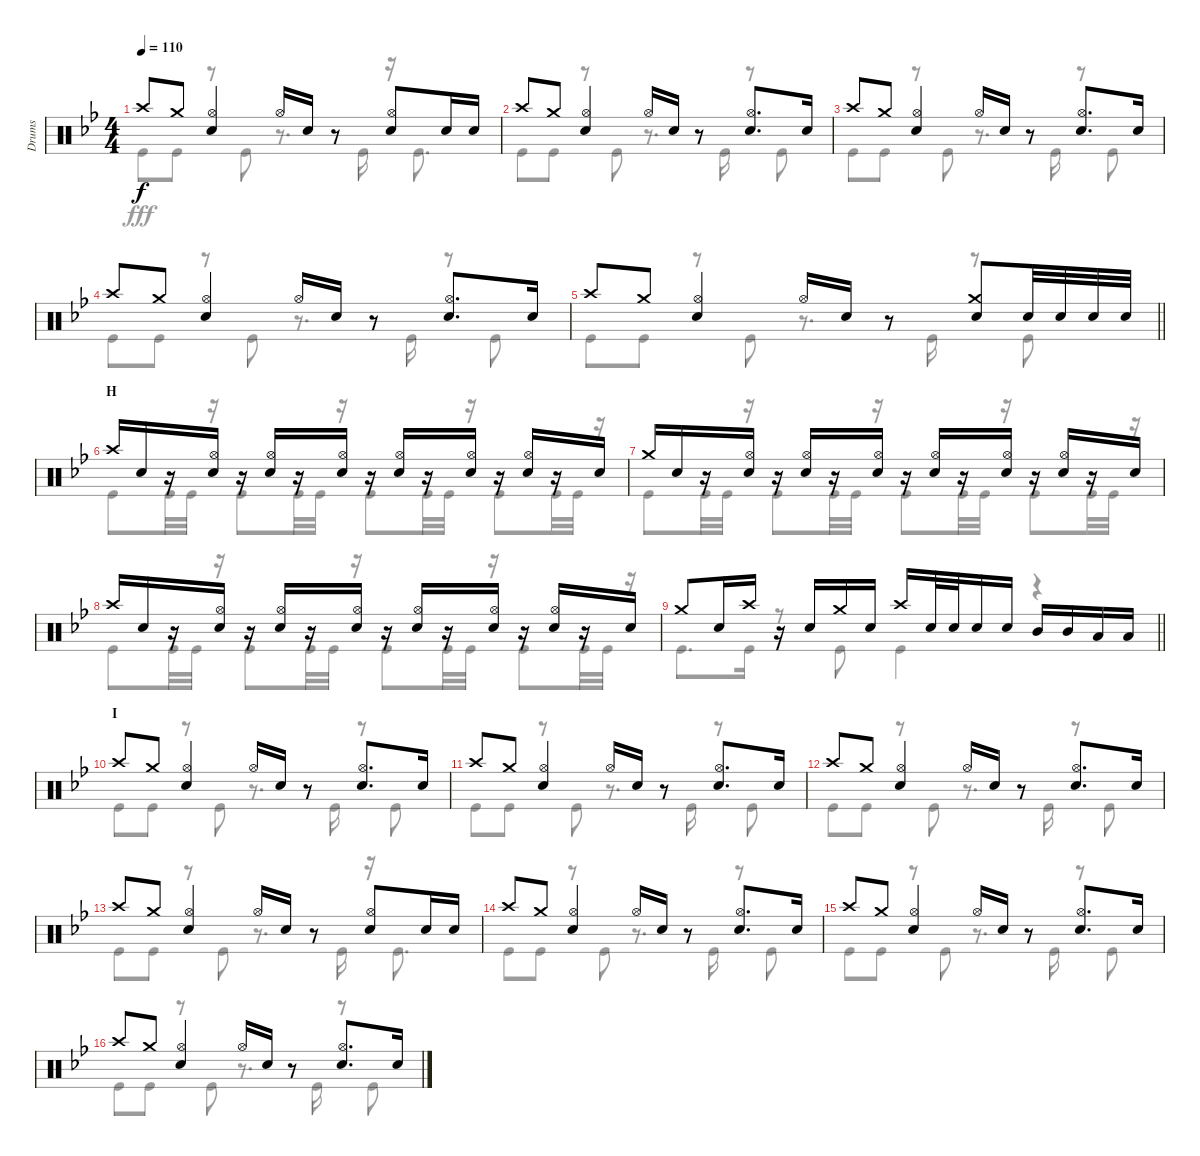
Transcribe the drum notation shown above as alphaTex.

\track ("Drums" "Drums") {instrument percussion}
\staff {score}
\articulation defaults
\voice
\ts (4 4)
\tempo 110
\clef neutral
\ks bb "Crash high (hit)".8{dy f} "Crash medium (hit)".8
("Hi-Hat (open)" "Snare (hit) 2").4 "Hi-Hat (open)".16 "Snare (hit) 2".16 r.8 ("Hi-Hat (open)" "Snare (hit) 2").8 "Snare (hit) 2".16 "Snare (hit) 2".16 |
"Crash high (hit)".8 "Crash medium (hit)".8 ("Hi-Hat (open)" "Snare (hit) 2").4 "Hi-Hat (open)".16 "Snare (hit) 2".16 r.8 ("Hi-Hat (open)" "Snare (hit) 2").8{d} "Snare (hit) 2".16 |
"Crash high (hit)".8 "Crash medium (hit)".8 ("Hi-Hat (open)" "Snare (hit) 2").4 "Hi-Hat (open)".16 "Snare (hit) 2".16 r.8 ("Hi-Hat (open)" "Snare (hit) 2").8{d} "Snare (hit) 2".16 |
"Crash high (hit)".8 "Crash medium (hit)".8 ("Hi-Hat (open)" "Snare (hit) 2").4 "Hi-Hat (open)".16 "Snare (hit) 2".16 r.8 ("Hi-Hat (open)" "Snare (hit) 2").8{d} "Snare (hit) 2".16 |
\barLineRight lightlight "Crash high (hit)".8 "Crash medium (hit)".8
("Hi-Hat (open)" "Snare (hit) 2").4 "Hi-Hat (open)".16 "Snare (hit) 2".16 r.8 ("Crash medium (hit)" "Snare (hit) 2").8 "Snare (hit) 2".32 "Snare (hit) 2".32 "Snare (hit) 2".32 "Snare (hit) 2".32 |
\section ("" "H")
"Crash high (hit)".16 "Snare (hit) 2".16 r.16 ("Hi-Hat (open)" "Snare (hit) 2").16 r.16 ("Hi-Hat (open)" "Snare (hit) 2").16 r.16 ("Hi-Hat (open)" "Snare (hit) 2").16 r.16 ("Hi-Hat (open)" "Snare (hit) 2").16 r.16 ("Hi-Hat (open)" "Snare (hit) 2").16 r.16 ("Hi-Hat (open)" "Snare (hit) 2").16 r.16 "Snare (hit) 2".16 |
"Crash medium (hit)".16 "Snare (hit) 2".16 r.16 ("Hi-Hat (open)" "Snare (hit) 2").16 r.16 ("Hi-Hat (open)" "Snare (hit) 2").16 r.16 ("Hi-Hat (open)" "Snare (hit) 2").16 r.16 ("Hi-Hat (open)" "Snare (hit) 2").16 r.16 ("Hi-Hat (open)" "Snare (hit) 2").16 r.16 ("Hi-Hat (open)" "Snare (hit) 2").16 r.16 "Snare (hit) 2".16 |
"Crash high (hit)".16 "Snare (hit) 2".16 r.16 ("Hi-Hat (open)" "Snare (hit) 2").16 r.16 ("Hi-Hat (open)" "Snare (hit) 2").16 r.16 ("Hi-Hat (open)" "Snare (hit) 2").16 r.16 ("Hi-Hat (open)" "Snare (hit) 2").16 r.16 ("Hi-Hat (open)" "Snare (hit) 2").16 r.16 ("Hi-Hat (open)" "Snare (hit) 2").16 r.16 "Snare (hit) 2".16 |
\barLineRight lightlight "Crash medium (hit)".8 "Snare (hit) 2".16 "Crash high (hit)".16
r.16 "Snare (hit) 2".16 "Crash medium (hit)".16 "Snare (hit) 2".16 "Crash high (hit)".16 "Snare (hit) 2".32 "Snare (hit) 2".32 "Snare (hit) 2".16 "Snare (hit) 2".16 "Mid Tom (hit)".16 "Mid Tom (hit)".16 "Low Tom (hit)".16 "Low Tom (hit)".16 |
\section ("" "I")
"Crash high (hit)".8 "Crash medium (hit)".8 ("Hi-Hat (open)" "Snare (hit) 2").4 "Hi-Hat (open)".16 "Snare (hit) 2".16 r.8 ("Hi-Hat (open)" "Snare (hit) 2").8{d} "Snare (hit) 2".16 |
"Crash high (hit)".8 "Crash medium (hit)".8 ("Hi-Hat (open)" "Snare (hit) 2").4 "Hi-Hat (open)".16 "Snare (hit) 2".16 r.8 ("Hi-Hat (open)" "Snare (hit) 2").8{d} "Snare (hit) 2".16 |
"Crash high (hit)".8 "Crash medium (hit)".8 ("Hi-Hat (open)" "Snare (hit) 2").4 "Hi-Hat (open)".16 "Snare (hit) 2".16 r.8 ("Hi-Hat (open)" "Snare (hit) 2").8{d} "Snare (hit) 2".16 |
"Crash high (hit)".8 "Crash medium (hit)".8 ("Hi-Hat (open)" "Snare (hit) 2").4 "Hi-Hat (open)".16 "Snare (hit) 2".16 r.8 ("Hi-Hat (open)" "Snare (hit) 2").8 "Snare (hit) 2".16 "Snare (hit) 2".16 |
"Crash high (hit)".8 "Crash medium (hit)".8 ("Hi-Hat (open)" "Snare (hit) 2").4 "Hi-Hat (open)".16 "Snare (hit) 2".16 r.8 ("Hi-Hat (open)" "Snare (hit) 2").8{d} "Snare (hit) 2".16 |
"Crash high (hit)".8 "Crash medium (hit)".8 ("Hi-Hat (open)" "Snare (hit) 2").4 "Hi-Hat (open)".16 "Snare (hit) 2".16 r.8 ("Hi-Hat (open)" "Snare (hit) 2").8{d} "Snare (hit) 2".16 |
"Crash high (hit)".8 "Crash medium (hit)".8 ("Hi-Hat (open)" "Snare (hit) 2").4 "Hi-Hat (open)".16 "Snare (hit) 2".16 r.8 ("Hi-Hat (open)" "Snare (hit) 2").8{d} "Snare (hit) 2".16
\voice
\clef neutral
\ottava regular
\simile none
\ks bb "Kick (hit)".8{dy fff} "Kick (hit)".8
r.8 "Kick (hit)".8 r.8{d} "Kick (hit)".16 r.16 "Kick (hit)".8{d} |
"Kick (hit)".8 "Kick (hit)".8 r.8 "Kick (hit)".8 r.8{d} "Kick (hit)".16 r.8 "Kick (hit)".8 |
"Kick (hit)".8 "Kick (hit)".8 r.8 "Kick (hit)".8 r.8{d} "Kick (hit)".16 r.8 "Kick (hit)".8 |
"Kick (hit)".8 "Kick (hit)".8 r.8 "Kick (hit)".8 r.8{d} "Kick (hit)".16 r.8 "Kick (hit)".8 |
\barLineRight lightlight "Kick (hit)".8 "Kick (hit)".8
r.8 "Kick (hit)".8 r.8{d} "Kick (hit)".16 r.8 "Kick (hit)".8 |
"Kick (hit)".8 "Kick (hit)".32 "Kick (hit)".32 r.16 "Kick (hit)".8 "Kick (hit)".32 "Kick (hit)".32 r.16 "Kick (hit)".8 "Kick (hit)".32 "Kick (hit)".32 r.16 "Kick (hit)".8 "Kick (hit)".32 "Kick (hit)".32 r.16 |
"Kick (hit)".8 "Kick (hit)".32 "Kick (hit)".32 r.16 "Kick (hit)".8 "Kick (hit)".32 "Kick (hit)".32 r.16 "Kick (hit)".8 "Kick (hit)".32 "Kick (hit)".32 r.16 "Kick (hit)".8 "Kick (hit)".32 "Kick (hit)".32 r.16 |
"Kick (hit)".8 "Kick (hit)".32 "Kick (hit)".32 r.16 "Kick (hit)".8 "Kick (hit)".32 "Kick (hit)".32 r.16 "Kick (hit)".8 "Kick (hit)".32 "Kick (hit)".32 r.16 "Kick (hit)".8 "Kick (hit)".32 "Kick (hit)".32 r.16 |
\barLineRight lightlight "Kick (hit)".8{d} "Kick (hit)".16
r.8 "Kick (hit)".8 "Kick (hit)".4 r.4 |
"Kick (hit)".8 "Kick (hit)".8 r.8 "Kick (hit)".8 r.8{d} "Kick (hit)".16 r.8 "Kick (hit)".8 |
"Kick (hit)".8 "Kick (hit)".8 r.8 "Kick (hit)".8 r.8{d} "Kick (hit)".16 r.8 "Kick (hit)".8 |
"Kick (hit)".8 "Kick (hit)".8 r.8 "Kick (hit)".8 r.8{d} "Kick (hit)".16 r.8 "Kick (hit)".8 |
"Kick (hit)".8 "Kick (hit)".8 r.8 "Kick (hit)".8 r.8{d} "Kick (hit)".16 r.16 "Kick (hit)".8{d} |
"Kick (hit)".8 "Kick (hit)".8 r.8 "Kick (hit)".8 r.8{d} "Kick (hit)".16 r.8 "Kick (hit)".8 |
"Kick (hit)".8 "Kick (hit)".8 r.8 "Kick (hit)".8 r.8{d} "Kick (hit)".16 r.8 "Kick (hit)".8 |
"Kick (hit)".8 "Kick (hit)".8 r.8 "Kick (hit)".8 r.8{d} "Kick (hit)".16 r.8 "Kick (hit)".8
